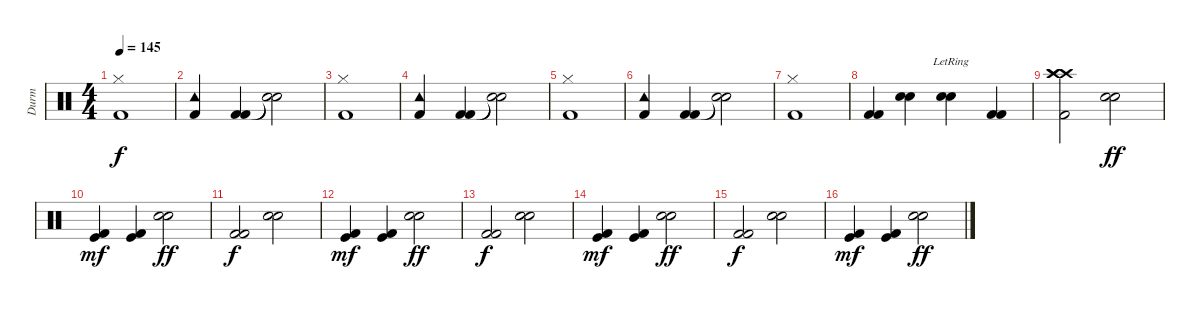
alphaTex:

\track ("Durm" "Durm") {instrument percussion}
\staff {score}
\articulation defaults
\ts (4 4)
\tempo 145
\clef neutral
\ks c
("Kick (hit) 2" "Hi-Hat (closed)").1{dy f} |
("Kick (hit) 2" "Tambourine (hit)").4 ("Kick (hit) 2" "Kick (hit) 2").4 ("Snare (hit)"{t} "Snare (hit)"{t}).2 |
("Kick (hit) 2" "Hi-Hat (closed)").1 |
("Kick (hit) 2" "Tambourine (hit)").4 ("Kick (hit) 2" "Kick (hit) 2").4 ("Snare (hit)"{t} "Snare (hit)"{t}).2 |
("Kick (hit) 2" "Hi-Hat (closed)").1 |
("Kick (hit) 2" "Tambourine (hit)").4 ("Kick (hit) 2" "Kick (hit) 2").4 ("Snare (hit)"{t} "Snare (hit)"{t}).2 |
("Kick (hit) 2" "Hi-Hat (closed)").1 |
("Kick (hit) 2" "Kick (hit) 2").4 ("Snare (hit) 2" "Snare (hit) 2").4 ("Snare (hit) 2"{lr} "Snare (hit) 2"{lr}).4 ("Kick (hit) 2" "Kick (hit) 2").4 |
("Crash high (hit)" "Kick (hit) 2" "Crash high (hit)" "Crash high (hit)").2 ("Snare (hit) 2" "Snare (hit) 2").2{dy ff} |
("Kick (hit)" "Kick (hit) 2").4{dy mf} ("Kick (hit)" "Kick (hit) 2").4 ("Snare (hit) 2" "Snare (hit) 2").2{dy ff} |
("Kick (hit) 2" "Kick (hit) 2").2{dy f} ("Snare (hit) 2" "Snare (hit) 2").2 |
("Kick (hit)" "Kick (hit) 2").4{dy mf} ("Kick (hit)" "Kick (hit) 2").4 ("Snare (hit) 2" "Snare (hit) 2").2{dy ff} |
("Kick (hit) 2" "Kick (hit) 2").2{dy f} ("Snare (hit) 2" "Snare (hit) 2").2 |
("Kick (hit)" "Kick (hit) 2").4{dy mf} ("Kick (hit)" "Kick (hit) 2").4 ("Snare (hit) 2" "Snare (hit) 2").2{dy ff} |
("Kick (hit) 2" "Kick (hit) 2").2{dy f} ("Snare (hit) 2" "Snare (hit) 2").2 |
("Kick (hit)" "Kick (hit) 2").4{dy mf} ("Kick (hit)" "Kick (hit) 2").4 ("Snare (hit) 2" "Snare (hit) 2").2{dy ff}
